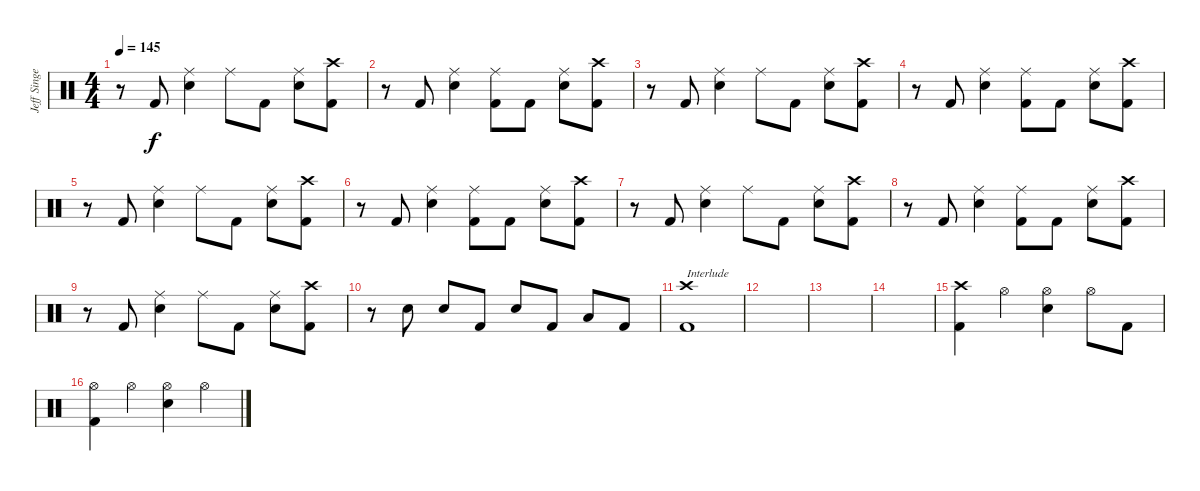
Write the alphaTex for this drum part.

\track ("Jeff Singer" "Jeff Singe") {instrument percussion}
\staff {score}
\articulation defaults
\ts (4 4)
\tempo 145
\clef neutral
\ks c
r.8{dy f} "Kick (hit) 2".8 ("Ride (middle)" "Electric Snare (hit)").4 "Ride (middle)".8 "Kick (hit) 2".8 ("Ride (middle)" "Electric Snare (hit)").8 ("Crash high (hit)" "Kick (hit) 2").8 |
r.8 "Kick (hit) 2".8 ("Ride (middle)" "Electric Snare (hit)").4 ("Ride (middle)" "Kick (hit) 2").8 "Kick (hit) 2".8 ("Ride (middle)" "Electric Snare (hit)").8 ("Crash high (hit)" "Kick (hit) 2").8 |
r.8 "Kick (hit) 2".8 ("Ride (middle)" "Electric Snare (hit)").4 "Ride (middle)".8 "Kick (hit) 2".8 ("Ride (middle)" "Electric Snare (hit)").8 ("Crash high (hit)" "Kick (hit) 2").8 |
r.8 "Kick (hit) 2".8 ("Ride (middle)" "Electric Snare (hit)").4 ("Ride (middle)" "Kick (hit) 2").8 "Kick (hit) 2".8 ("Ride (middle)" "Electric Snare (hit)").8 ("Crash high (hit)" "Kick (hit) 2").8 |
r.8 "Kick (hit) 2".8 ("Ride (middle)" "Electric Snare (hit)").4 "Ride (middle)".8 "Kick (hit) 2".8 ("Ride (middle)" "Electric Snare (hit)").8 ("Crash high (hit)" "Kick (hit) 2").8 |
r.8 "Kick (hit) 2".8 ("Ride (middle)" "Electric Snare (hit)").4 ("Ride (middle)" "Kick (hit) 2").8 "Kick (hit) 2".8 ("Ride (middle)" "Electric Snare (hit)").8 ("Crash high (hit)" "Kick (hit) 2").8 |
r.8 "Kick (hit) 2".8 ("Ride (middle)" "Electric Snare (hit)").4 "Ride (middle)".8 "Kick (hit) 2".8 ("Ride (middle)" "Electric Snare (hit)").8 ("Crash high (hit)" "Kick (hit) 2").8 |
r.8 "Kick (hit) 2".8 ("Ride (middle)" "Electric Snare (hit)").4 ("Ride (middle)" "Kick (hit) 2").8 "Kick (hit) 2".8 ("Ride (middle)" "Electric Snare (hit)").8 ("Crash high (hit)" "Kick (hit) 2").8 |
r.8 "Kick (hit) 2".8 ("Ride (middle)" "Electric Snare (hit)").4 "Ride (middle)".8 "Kick (hit) 2".8 ("Ride (middle)" "Electric Snare (hit)").8 ("Crash high (hit)" "Kick (hit) 2").8 |
r.8 "Electric Snare (hit)".8 "Electric Snare (hit)".8 "Kick (hit) 2".8 "Electric Snare (hit)".8 "Kick (hit) 2".8 "Low Tom (hit)".8 "Kick (hit) 2".8 |
("Crash high (hit)" "Kick (hit) 2").1{txt "Interlude"} |
|
|
|
("Crash high (hit)" "Kick (hit) 2").4 "Hi-Hat (open)".4 ("Hi-Hat (open)" "Snare (hit) 2").4 "Hi-Hat (open)".8 "Kick (hit) 2".8 |
("Hi-Hat (open)" "Kick (hit) 2").4 "Hi-Hat (open)".4 ("Hi-Hat (open)" "Snare (hit) 2").4 "Hi-Hat (open)".4
